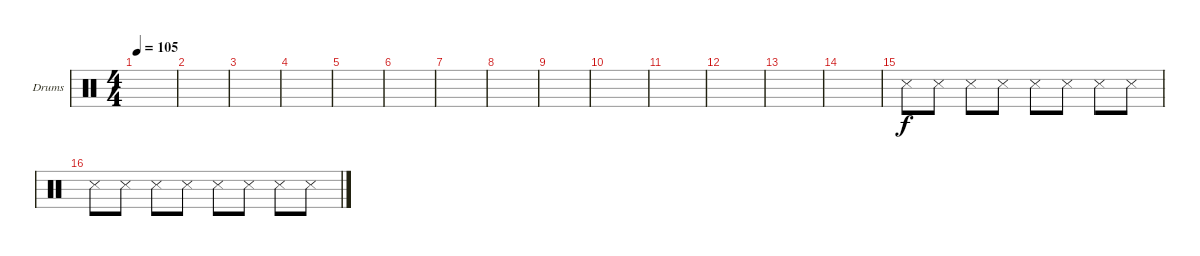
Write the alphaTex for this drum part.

\defaultSystemsLayout 4
\bracketExtendMode groupsimilarinstruments
\firstSystemTrackNameOrientation horizontal
\otherSystemsTrackNameOrientation horizontal
\track ("Drumkit" "Drums") {instrument percussion}
\staff {score}
\articulation defaults
\ts (4 4)
\tempo 105
\clef neutral
\scale
0.333333
\ks c
|
\scale
0.333333 |
\scale
0.333333 |
\scale
0.333333 |
\scale
0.333333 |
\scale
0.333333 |
\scale
0.333333 |
\scale
0.333333 |
\scale
0.333333 |
\scale
0.333333 |
\scale
0.333333 |
\scale
0.333333 |
\scale
0.333333 |
\scale
0.333333 |
\scale
0.333333 "Snare (side stick) 3".8 "Snare (side stick) 3".8 "Snare (side stick) 3".8 "Snare (side stick) 3".8 "Snare (side stick) 3".8 "Snare (side stick) 3".8 "Snare (side stick) 3".8 "Snare (side stick) 3".8 |
\scale
0.333333 "Snare (side stick) 3".8 "Snare (side stick) 3".8 "Snare (side stick) 3".8 "Snare (side stick) 3".8 "Snare (side stick) 3".8 "Snare (side stick) 3".8 "Snare (side stick) 3".8 "Snare (side stick) 3".8
